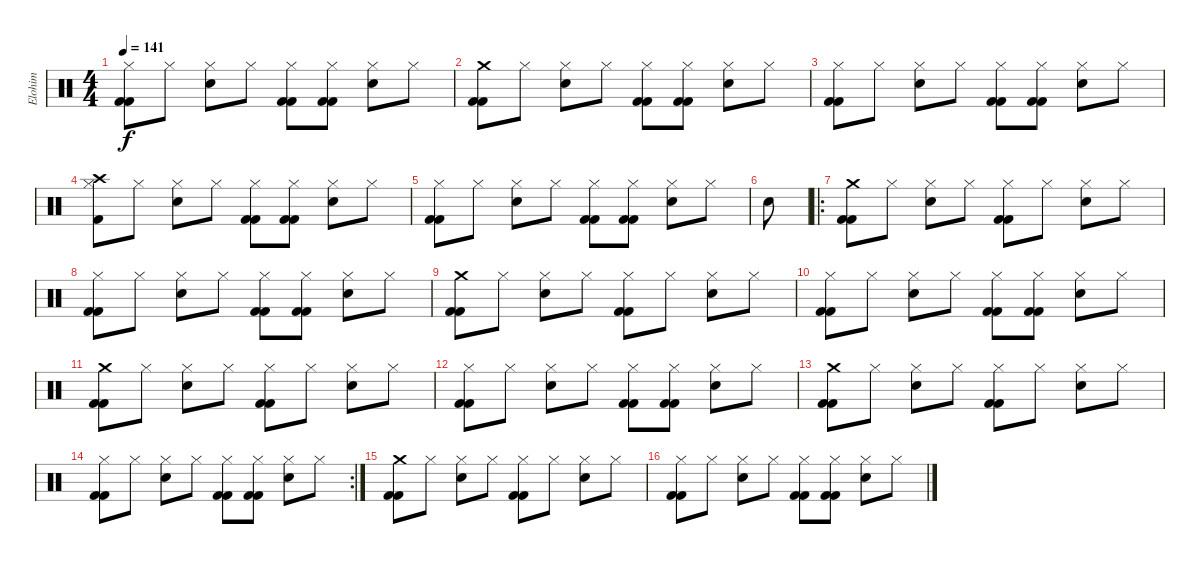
\track ("Elohim" "Elohim") {instrument percussion}
\staff {score}
\articulation defaults
\ts (4 4)
\tempo 141
\clef neutral
\ks c
("Hi-Hat (closed)" "Kick (hit) 2" "Kick (hit) 2").8{dy f} "Hi-Hat (closed)".8 ("Hi-Hat (closed)" "Snare (hit) 2").8 "Hi-Hat (closed)".8 ("Hi-Hat (closed)" "Kick (hit) 2" "Kick (hit) 2").8 ("Hi-Hat (closed)" "Kick (hit) 2" "Kick (hit) 2").8 ("Hi-Hat (closed)" "Snare (hit) 2").8 "Hi-Hat (closed)".8 |
("Crash medium (hit)" "Kick (hit) 2" "Kick (hit) 2").8 "Hi-Hat (closed)".8 ("Hi-Hat (closed)" "Snare (hit) 2").8 "Hi-Hat (closed)".8 ("Hi-Hat (closed)" "Kick (hit) 2" "Kick (hit) 2").8 ("Hi-Hat (closed)" "Kick (hit) 2" "Kick (hit) 2").8 ("Hi-Hat (closed)" "Snare (hit) 2").8 "Hi-Hat (closed)".8 |
("Hi-Hat (closed)" "Kick (hit) 2" "Kick (hit) 2").8 "Hi-Hat (closed)".8 ("Hi-Hat (closed)" "Snare (hit) 2").8 "Hi-Hat (closed)".8 ("Hi-Hat (closed)" "Kick (hit) 2" "Kick (hit) 2").8 ("Hi-Hat (closed)" "Kick (hit) 2" "Kick (hit) 2").8 ("Hi-Hat (closed)" "Snare (hit) 2").8 "Hi-Hat (closed)".8 |
("Hi-Hat (closed)" "Kick (hit) 2" "Crash high (hit)").8 "Hi-Hat (closed)".8 ("Hi-Hat (closed)" "Snare (hit) 2").8 "Hi-Hat (closed)".8 ("Hi-Hat (closed)" "Kick (hit) 2" "Kick (hit) 2").8 ("Hi-Hat (closed)" "Kick (hit) 2" "Kick (hit) 2").8 ("Hi-Hat (closed)" "Snare (hit) 2").8 "Hi-Hat (closed)".8 |
("Hi-Hat (closed)" "Kick (hit) 2" "Kick (hit) 2").8 "Hi-Hat (closed)".8 ("Hi-Hat (closed)" "Snare (hit) 2").8 "Hi-Hat (closed)".8 ("Hi-Hat (closed)" "Kick (hit) 2" "Kick (hit) 2").8 ("Hi-Hat (closed)" "Kick (hit) 2" "Kick (hit) 2").8 ("Hi-Hat (closed)" "Snare (hit) 2").8 "Hi-Hat (closed)".8 |
"Electric Snare (hit)".8 |
\ro
("Crash medium (hit)" "Kick (hit) 2" "Kick (hit) 2").8 "Hi-Hat (closed)".8 ("Hi-Hat (closed)" "Snare (hit) 2").8 "Hi-Hat (closed)".8 ("Hi-Hat (closed)" "Kick (hit) 2" "Kick (hit) 2").8 "Hi-Hat (closed)".8 ("Hi-Hat (closed)" "Snare (hit) 2").8 "Hi-Hat (closed)".8 |
("Hi-Hat (closed)" "Kick (hit) 2" "Kick (hit) 2").8 "Hi-Hat (closed)".8 ("Hi-Hat (closed)" "Snare (hit) 2").8 "Hi-Hat (closed)".8 ("Hi-Hat (closed)" "Kick (hit) 2" "Kick (hit) 2").8 ("Hi-Hat (closed)" "Kick (hit) 2" "Kick (hit) 2").8 ("Hi-Hat (closed)" "Snare (hit) 2").8 "Hi-Hat (closed)".8 |
("Crash medium (hit)" "Kick (hit) 2" "Kick (hit) 2").8 "Hi-Hat (closed)".8 ("Hi-Hat (closed)" "Snare (hit) 2").8 "Hi-Hat (closed)".8 ("Hi-Hat (closed)" "Kick (hit) 2" "Kick (hit) 2").8 "Hi-Hat (closed)".8 ("Hi-Hat (closed)" "Snare (hit) 2").8 "Hi-Hat (closed)".8 |
("Hi-Hat (closed)" "Kick (hit) 2" "Kick (hit) 2").8 "Hi-Hat (closed)".8 ("Hi-Hat (closed)" "Snare (hit) 2").8 "Hi-Hat (closed)".8 ("Hi-Hat (closed)" "Kick (hit) 2" "Kick (hit) 2").8 ("Hi-Hat (closed)" "Kick (hit) 2" "Kick (hit) 2").8 ("Hi-Hat (closed)" "Snare (hit) 2").8 "Hi-Hat (closed)".8 |
("Crash medium (hit)" "Kick (hit) 2" "Kick (hit) 2").8 "Hi-Hat (closed)".8 ("Hi-Hat (closed)" "Snare (hit) 2").8 "Hi-Hat (closed)".8 ("Hi-Hat (closed)" "Kick (hit) 2" "Kick (hit) 2").8 "Hi-Hat (closed)".8 ("Hi-Hat (closed)" "Snare (hit) 2").8 "Hi-Hat (closed)".8 |
("Hi-Hat (closed)" "Kick (hit) 2" "Kick (hit) 2").8 "Hi-Hat (closed)".8 ("Hi-Hat (closed)" "Snare (hit) 2").8 "Hi-Hat (closed)".8 ("Hi-Hat (closed)" "Kick (hit) 2" "Kick (hit) 2").8 ("Hi-Hat (closed)" "Kick (hit) 2" "Kick (hit) 2").8 ("Hi-Hat (closed)" "Snare (hit) 2").8 "Hi-Hat (closed)".8 |
("Crash medium (hit)" "Kick (hit) 2" "Kick (hit) 2").8 "Hi-Hat (closed)".8 ("Hi-Hat (closed)" "Snare (hit) 2").8 "Hi-Hat (closed)".8 ("Hi-Hat (closed)" "Kick (hit) 2" "Kick (hit) 2").8 "Hi-Hat (closed)".8 ("Hi-Hat (closed)" "Snare (hit) 2").8 "Hi-Hat (closed)".8 |
\rc 2
("Hi-Hat (closed)" "Kick (hit) 2" "Kick (hit) 2").8 "Hi-Hat (closed)".8 ("Hi-Hat (closed)" "Snare (hit) 2").8 "Hi-Hat (closed)".8 ("Hi-Hat (closed)" "Kick (hit) 2" "Kick (hit) 2").8 ("Hi-Hat (closed)" "Kick (hit) 2" "Kick (hit) 2").8 ("Hi-Hat (closed)" "Snare (hit) 2").8 "Hi-Hat (closed)".8 |
("Crash medium (hit)" "Kick (hit) 2" "Kick (hit) 2").8 "Hi-Hat (closed)".8 ("Hi-Hat (closed)" "Snare (hit) 2").8 "Hi-Hat (closed)".8 ("Hi-Hat (closed)" "Kick (hit) 2" "Kick (hit) 2").8 "Hi-Hat (closed)".8 ("Hi-Hat (closed)" "Snare (hit) 2").8 "Hi-Hat (closed)".8 |
("Hi-Hat (closed)" "Kick (hit) 2" "Kick (hit) 2").8 "Hi-Hat (closed)".8 ("Hi-Hat (closed)" "Snare (hit) 2").8 "Hi-Hat (closed)".8 ("Hi-Hat (closed)" "Kick (hit) 2" "Kick (hit) 2").8 ("Hi-Hat (closed)" "Kick (hit) 2" "Kick (hit) 2").8 ("Hi-Hat (closed)" "Snare (hit) 2").8 "Hi-Hat (closed)".8
